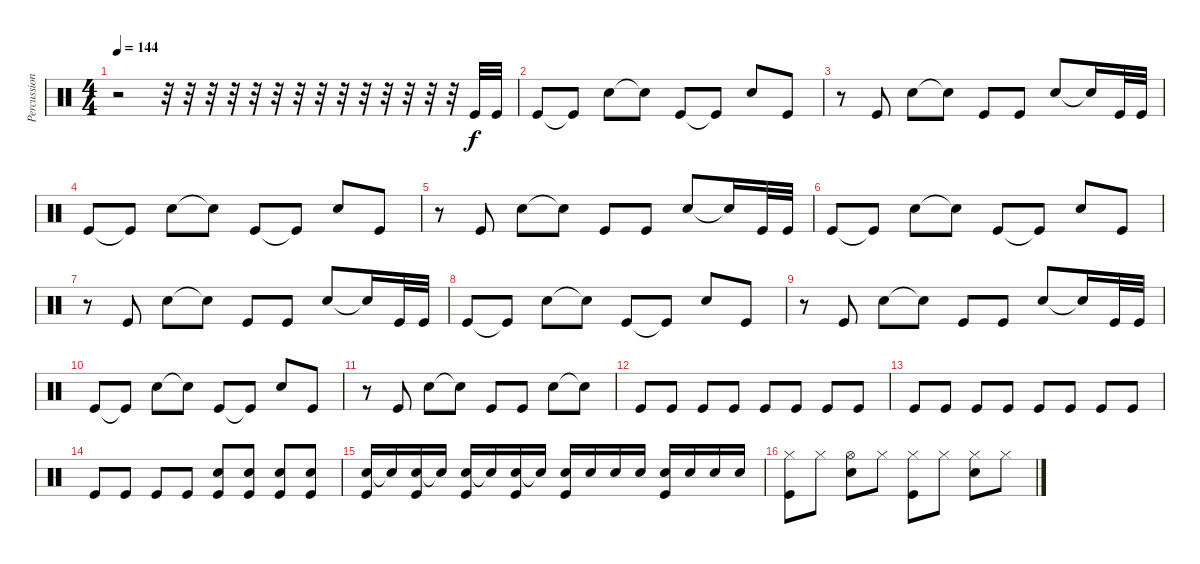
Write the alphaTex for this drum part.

\track ("Percussion" "Percussion") {instrument percussion}
\staff {score}
\articulation defaults
\ts (4 4)
\tempo 144
\clef neutral
\ks c
r.2{dy f} r.32 r.32 r.32 r.32 r.32 r.32 r.32 r.32 r.32 r.32 r.32 r.32 r.32 r.32 "Kick (hit)".32 "Kick (hit)".32 |
"Kick (hit)".8 "Kick (hit)"{t}.8 "Snare (hit) 2".8 "Snare (hit) 2"{t}.8 "Kick (hit)".8 "Kick (hit)"{t}.8 "Snare (hit) 2".8 "Kick (hit)".8 |
r.8 "Kick (hit)".8 "Snare (hit) 2".8 "Snare (hit) 2"{t}.8 "Kick (hit)".8 "Kick (hit)".8 "Snare (hit) 2".8 "Snare (hit) 2"{t}.16 "Kick (hit)".32 "Kick (hit)".32 |
"Kick (hit)".8 "Kick (hit)"{t}.8 "Snare (hit) 2".8 "Snare (hit) 2"{t}.8 "Kick (hit)".8 "Kick (hit)"{t}.8 "Snare (hit) 2".8 "Kick (hit)".8 |
r.8 "Kick (hit)".8 "Snare (hit) 2".8 "Snare (hit) 2"{t}.8 "Kick (hit)".8 "Kick (hit)".8 "Snare (hit) 2".8 "Snare (hit) 2"{t}.16 "Kick (hit)".32 "Kick (hit)".32 |
"Kick (hit)".8 "Kick (hit)"{t}.8 "Snare (hit) 2".8 "Snare (hit) 2"{t}.8 "Kick (hit)".8 "Kick (hit)"{t}.8 "Snare (hit) 2".8 "Kick (hit)".8 |
r.8 "Kick (hit)".8 "Snare (hit) 2".8 "Snare (hit) 2"{t}.8 "Kick (hit)".8 "Kick (hit)".8 "Snare (hit) 2".8 "Snare (hit) 2"{t}.16 "Kick (hit)".32 "Kick (hit)".32 |
"Kick (hit)".8 "Kick (hit)"{t}.8 "Snare (hit) 2".8 "Snare (hit) 2"{t}.8 "Kick (hit)".8 "Kick (hit)"{t}.8 "Snare (hit) 2".8 "Kick (hit)".8 |
r.8 "Kick (hit)".8 "Snare (hit) 2".8 "Snare (hit) 2"{t}.8 "Kick (hit)".8 "Kick (hit)".8 "Snare (hit) 2".8 "Snare (hit) 2"{t}.16 "Kick (hit)".32 "Kick (hit)".32 |
"Kick (hit)".8 "Kick (hit)"{t}.8 "Snare (hit) 2".8 "Snare (hit) 2"{t}.8 "Kick (hit)".8 "Kick (hit)"{t}.8 "Snare (hit) 2".8 "Kick (hit)".8 |
r.8 "Kick (hit)".8 "Snare (hit) 2".8 "Snare (hit) 2"{t}.8 "Kick (hit)".8 "Kick (hit)".8 "Snare (hit) 2".8 "Snare (hit) 2"{t}.8 |
"Kick (hit)".8 "Kick (hit)".8 "Kick (hit)".8 "Kick (hit)".8 "Kick (hit)".8 "Kick (hit)".8 "Kick (hit)".8 "Kick (hit)".8 |
"Kick (hit)".8 "Kick (hit)".8 "Kick (hit)".8 "Kick (hit)".8 "Kick (hit)".8 "Kick (hit)".8 "Kick (hit)".8 "Kick (hit)".8 |
"Kick (hit)".8 "Kick (hit)".8 "Kick (hit)".8 "Kick (hit)".8 ("Snare (hit) 2" "Kick (hit)").8 ("Snare (hit) 2" "Kick (hit)").8 ("Snare (hit) 2" "Kick (hit)").8 ("Snare (hit) 2" "Kick (hit)").8 |
("Snare (hit) 2" "Kick (hit)").16 "Snare (hit) 2"{t}.16 ("Snare (hit) 2" "Kick (hit)").16 "Snare (hit) 2"{t}.16 ("Snare (hit) 2" "Kick (hit)").16 "Snare (hit) 2"{t}.16 ("Snare (hit) 2" "Kick (hit)").16 "Snare (hit) 2"{t}.16 ("Snare (hit) 2" "Kick (hit)").16 "Snare (hit) 2".16 "Snare (hit) 2".16 "Snare (hit) 2".16 ("Snare (hit) 2" "Kick (hit)").16 "Snare (hit) 2".16 "Snare (hit) 2".16 "Snare (hit) 2".16 |
("Hi-Hat (closed)" "Kick (hit)").8 "Hi-Hat (closed)".8 ("Hi-Hat (open)" "Snare (hit) 2").8 "Hi-Hat (closed)".8 ("Hi-Hat (closed)" "Kick (hit)").8 "Hi-Hat (closed)".8 ("Hi-Hat (closed)" "Snare (hit) 2").8 "Hi-Hat (closed)".8
